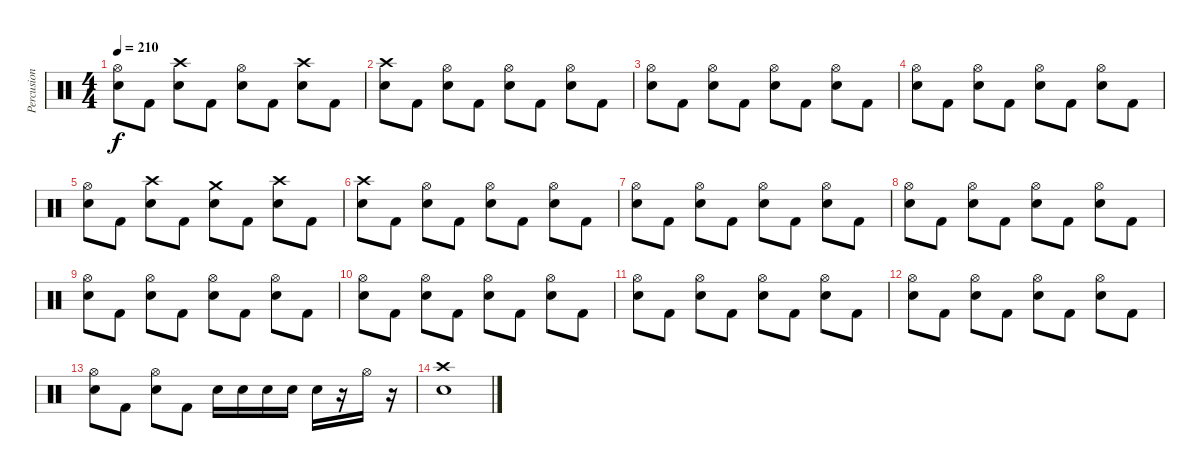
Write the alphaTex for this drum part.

\track ("Percusion" "Percusion") {instrument percussion}
\staff {score}
\articulation defaults
\ts (4 4)
\tempo 210
\clef neutral
\ks c
("Hi-Hat (open)" "Snare (hit) 2").8{dy f} "Kick (hit) 2".8 ("Crash high (hit)" "Snare (hit) 2").8 "Kick (hit) 2".8 ("Hi-Hat (open)" "Snare (hit) 2").8 "Kick (hit) 2".8 ("Crash high (hit)" "Snare (hit) 2").8 "Kick (hit) 2".8 |
("Crash high (hit)" "Snare (hit) 2").8 "Kick (hit) 2".8 ("Hi-Hat (open)" "Snare (hit) 2").8 "Kick (hit) 2".8 ("Hi-Hat (open)" "Snare (hit) 2").8 "Kick (hit) 2".8 ("Hi-Hat (open)" "Snare (hit) 2").8 "Kick (hit) 2".8 |
("Hi-Hat (open)" "Snare (hit) 2").8 "Kick (hit) 2".8 ("Hi-Hat (open)" "Snare (hit) 2").8 "Kick (hit) 2".8 ("Hi-Hat (open)" "Snare (hit) 2").8 "Kick (hit) 2".8 ("Hi-Hat (open)" "Snare (hit) 2").8 "Kick (hit) 2".8 |
("Hi-Hat (open)" "Snare (hit) 2").8 "Kick (hit) 2".8 ("Hi-Hat (open)" "Snare (hit) 2").8 "Kick (hit) 2".8 ("Hi-Hat (open)" "Snare (hit) 2").8 "Kick (hit) 2".8 ("Hi-Hat (open)" "Snare (hit) 2").8 "Kick (hit) 2".8 |
("Hi-Hat (open)" "Snare (hit) 2").8 "Kick (hit) 2".8 ("Crash high (hit)" "Snare (hit) 2").8 "Kick (hit) 2".8 ("Crash medium (hit)" "Snare (hit) 2").8 "Kick (hit) 2".8 ("Crash high (hit)" "Snare (hit) 2").8 "Kick (hit) 2".8 |
("Crash high (hit)" "Snare (hit) 2").8 "Kick (hit) 2".8 ("Hi-Hat (open)" "Snare (hit) 2").8 "Kick (hit) 2".8 ("Hi-Hat (open)" "Snare (hit) 2").8 "Kick (hit) 2".8 ("Hi-Hat (open)" "Snare (hit) 2").8 "Kick (hit) 2".8 |
("Hi-Hat (open)" "Snare (hit) 2").8 "Kick (hit) 2".8 ("Hi-Hat (open)" "Snare (hit) 2").8 "Kick (hit) 2".8 ("Hi-Hat (open)" "Snare (hit) 2").8 "Kick (hit) 2".8 ("Hi-Hat (open)" "Snare (hit) 2").8 "Kick (hit) 2".8 |
("Hi-Hat (open)" "Snare (hit) 2").8 "Kick (hit) 2".8 ("Hi-Hat (open)" "Snare (hit) 2").8 "Kick (hit) 2".8 ("Hi-Hat (open)" "Snare (hit) 2").8 "Kick (hit) 2".8 ("Hi-Hat (open)" "Snare (hit) 2").8 "Kick (hit) 2".8 |
("Hi-Hat (open)" "Snare (hit) 2").8 "Kick (hit) 2".8 ("Hi-Hat (open)" "Snare (hit) 2").8 "Kick (hit) 2".8 ("Hi-Hat (open)" "Snare (hit) 2").8 "Kick (hit) 2".8 ("Hi-Hat (open)" "Snare (hit) 2").8 "Kick (hit) 2".8 |
("Hi-Hat (open)" "Snare (hit) 2").8 "Kick (hit) 2".8 ("Hi-Hat (open)" "Snare (hit) 2").8 "Kick (hit) 2".8 ("Hi-Hat (open)" "Snare (hit) 2").8 "Kick (hit) 2".8 ("Hi-Hat (open)" "Snare (hit) 2").8 "Kick (hit) 2".8 |
("Hi-Hat (open)" "Snare (hit) 2").8 "Kick (hit) 2".8 ("Hi-Hat (open)" "Snare (hit) 2").8 "Kick (hit) 2".8 ("Hi-Hat (open)" "Snare (hit) 2").8 "Kick (hit) 2".8 ("Hi-Hat (open)" "Snare (hit) 2").8 "Kick (hit) 2".8 |
("Hi-Hat (open)" "Snare (hit) 2").8 "Kick (hit) 2".8 ("Hi-Hat (open)" "Snare (hit) 2").8 "Kick (hit) 2".8 ("Hi-Hat (open)" "Snare (hit) 2").8 "Kick (hit) 2".8 ("Hi-Hat (open)" "Snare (hit) 2").8 "Kick (hit) 2".8 |
("Hi-Hat (open)" "Snare (hit) 2").8 "Kick (hit) 2".8 ("Hi-Hat (open)" "Snare (hit) 2").8 "Kick (hit) 2".8 "Snare (hit) 2".16 "Snare (hit) 2".16 "Snare (hit) 2".16 "Snare (hit) 2".16 "Snare (hit) 2".16 r.16 "Hi-Hat (open)".16 r.16 |
("Crash high (hit)" "Snare (hit) 2").1
